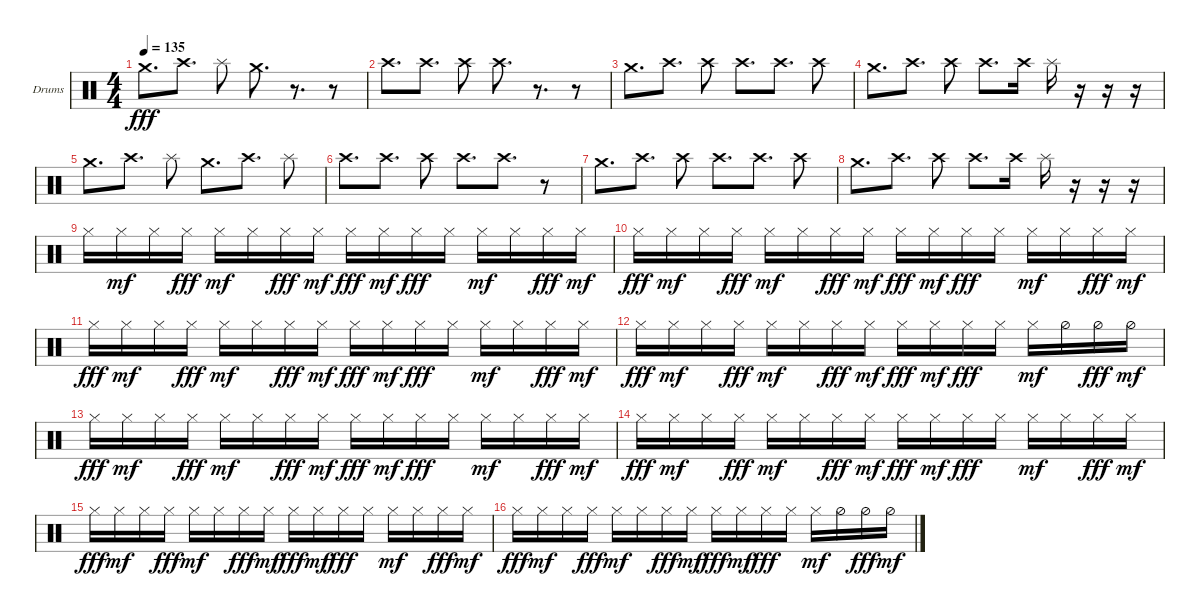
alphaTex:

\defaultSystemsLayout 4
\bracketExtendMode groupsimilarinstruments
\firstSystemTrackNameOrientation horizontal
\otherSystemsTrackNameOrientation horizontal
\track ("Matt Helders" "Drums") {instrument percussion}
\staff {score}
\articulation defaults
\ts (4 4)
\tempo 135
\clef neutral
\scale
0.333333
\ks c "Crash medium (hit)".8{d dy fff} "Crash high (hit)".8{d} "Splash (hit)".8 "Crash medium (hit)".8{d}
r.8{d} r.8 |
\scale
0.333333 "Crash high (hit)".8{d} "Crash high (hit)".8{d} "Crash high (hit)".8 "Crash high (hit)".8{d} r.8{d} r.8 |
\scale
0.333333 "Crash medium (hit)".8{d} "Crash high (hit)".8{d} "Crash high (hit)".8 "Crash high (hit)".8{d} "Crash high (hit)".8{d} "Crash high (hit)".8 |
\scale
0.333333 "Crash medium (hit)".8{d} "Crash high (hit)".8{d} "Crash high (hit)".8 "Crash high (hit)".8{d} "Crash high (hit)".16 "Splash (hit)".16 r.16 r.16 r.16 |
\scale
0.333333 "Crash medium (hit)".8{d} "Crash high (hit)".8{d} "Splash (hit)".8 "Crash medium (hit)".8{d} "Crash high (hit)".8{d} "Splash (hit)".8 |
"Crash high (hit)".8{d} "Crash high (hit)".8{d} "Crash high (hit)".8 "Crash high (hit)".8{d} "Crash high (hit)".8{d} r.8 |
"Crash medium (hit)".8{d} "Crash high (hit)".8{d} "Crash high (hit)".8 "Crash high (hit)".8{d} "Crash high (hit)".8{d} "Crash high (hit)".8 |
"Crash medium (hit)".8{d} "Crash high (hit)".8{d} "Crash high (hit)".8 "Crash high (hit)".8{d} "Crash high (hit)".16 "Splash (hit)".16 r.16 r.16 r.16 |
"Hi-Hat (closed)".16 "Hi-Hat (closed)".16{dy mf} "Hi-Hat (closed)".16 "Hi-Hat (closed)".16{dy fff} "Hi-Hat (closed)".16{dy mf} "Hi-Hat (closed)".16 "Hi-Hat (closed)".16{dy fff} "Hi-Hat (closed)".16{dy mf} "Hi-Hat (closed)".16{dy fff} "Hi-Hat (closed)".16{dy mf} "Hi-Hat (closed)".16{dy fff} "Hi-Hat (closed)".16 "Hi-Hat (closed)".16{dy mf} "Hi-Hat (closed)".16 "Hi-Hat (closed)".16{dy fff} "Hi-Hat (closed)".16{dy mf} |
"Hi-Hat (closed)".16{dy fff} "Hi-Hat (closed)".16{dy mf} "Hi-Hat (closed)".16 "Hi-Hat (closed)".16{dy fff} "Hi-Hat (closed)".16{dy mf} "Hi-Hat (closed)".16 "Hi-Hat (closed)".16{dy fff} "Hi-Hat (closed)".16{dy mf} "Hi-Hat (closed)".16{dy fff} "Hi-Hat (closed)".16{dy mf} "Hi-Hat (closed)".16{dy fff} "Hi-Hat (closed)".16 "Hi-Hat (closed)".16{dy mf} "Hi-Hat (closed)".16 "Hi-Hat (closed)".16{dy fff} "Hi-Hat (closed)".16{dy mf} |
"Hi-Hat (closed)".16{dy fff} "Hi-Hat (closed)".16{dy mf} "Hi-Hat (closed)".16 "Hi-Hat (closed)".16{dy fff} "Hi-Hat (closed)".16{dy mf} "Hi-Hat (closed)".16 "Hi-Hat (closed)".16{dy fff} "Hi-Hat (closed)".16{dy mf} "Hi-Hat (closed)".16{dy fff} "Hi-Hat (closed)".16{dy mf} "Hi-Hat (closed)".16{dy fff} "Hi-Hat (closed)".16 "Hi-Hat (closed)".16{dy mf} "Hi-Hat (closed)".16 "Hi-Hat (closed)".16{dy fff} "Hi-Hat (closed)".16{dy mf} |
"Hi-Hat (closed)".16{dy fff} "Hi-Hat (closed)".16{dy mf} "Hi-Hat (closed)".16 "Hi-Hat (closed)".16{dy fff} "Hi-Hat (closed)".16{dy mf} "Hi-Hat (closed)".16 "Hi-Hat (closed)".16{dy fff} "Hi-Hat (closed)".16{dy mf} "Hi-Hat (closed)".16{dy fff} "Hi-Hat (closed)".16{dy mf} "Hi-Hat (closed)".16{dy fff} "Hi-Hat (closed)".16 "Hi-Hat (closed)".16{dy mf} "Hi-Hat (half)".16 "Hi-Hat (half)".16{dy fff} "Hi-Hat (half)".16{dy mf} |
"Hi-Hat (closed)".16{dy fff} "Hi-Hat (closed)".16{dy mf} "Hi-Hat (closed)".16 "Hi-Hat (closed)".16{dy fff} "Hi-Hat (closed)".16{dy mf} "Hi-Hat (closed)".16 "Hi-Hat (closed)".16{dy fff} "Hi-Hat (closed)".16{dy mf} "Hi-Hat (closed)".16{dy fff} "Hi-Hat (closed)".16{dy mf} "Hi-Hat (closed)".16{dy fff} "Hi-Hat (closed)".16 "Hi-Hat (closed)".16{dy mf} "Hi-Hat (closed)".16 "Hi-Hat (closed)".16{dy fff} "Hi-Hat (closed)".16{dy mf} |
"Hi-Hat (closed)".16{dy fff} "Hi-Hat (closed)".16{dy mf} "Hi-Hat (closed)".16 "Hi-Hat (closed)".16{dy fff} "Hi-Hat (closed)".16{dy mf} "Hi-Hat (closed)".16 "Hi-Hat (closed)".16{dy fff} "Hi-Hat (closed)".16{dy mf} "Hi-Hat (closed)".16{dy fff} "Hi-Hat (closed)".16{dy mf} "Hi-Hat (closed)".16{dy fff} "Hi-Hat (closed)".16 "Hi-Hat (closed)".16{dy mf} "Hi-Hat (closed)".16 "Hi-Hat (closed)".16{dy fff} "Hi-Hat (closed)".16{dy mf} |
"Hi-Hat (closed)".16{dy fff} "Hi-Hat (closed)".16{dy mf} "Hi-Hat (closed)".16 "Hi-Hat (closed)".16{dy fff} "Hi-Hat (closed)".16{dy mf} "Hi-Hat (closed)".16 "Hi-Hat (closed)".16{dy fff} "Hi-Hat (closed)".16{dy mf} "Hi-Hat (closed)".16{dy fff} "Hi-Hat (closed)".16{dy mf} "Hi-Hat (closed)".16{dy fff} "Hi-Hat (closed)".16 "Hi-Hat (closed)".16{dy mf} "Hi-Hat (closed)".16 "Hi-Hat (closed)".16{dy fff} "Hi-Hat (closed)".16{dy mf} |
"Hi-Hat (closed)".16{dy fff} "Hi-Hat (closed)".16{dy mf} "Hi-Hat (closed)".16 "Hi-Hat (closed)".16{dy fff} "Hi-Hat (closed)".16{dy mf} "Hi-Hat (closed)".16 "Hi-Hat (closed)".16{dy fff} "Hi-Hat (closed)".16{dy mf} "Hi-Hat (closed)".16{dy fff} "Hi-Hat (closed)".16{dy mf} "Hi-Hat (closed)".16{dy fff} "Hi-Hat (closed)".16 "Hi-Hat (closed)".16{dy mf} "Hi-Hat (half)".16 "Hi-Hat (half)".16{dy fff} "Hi-Hat (half)".16{dy mf}
